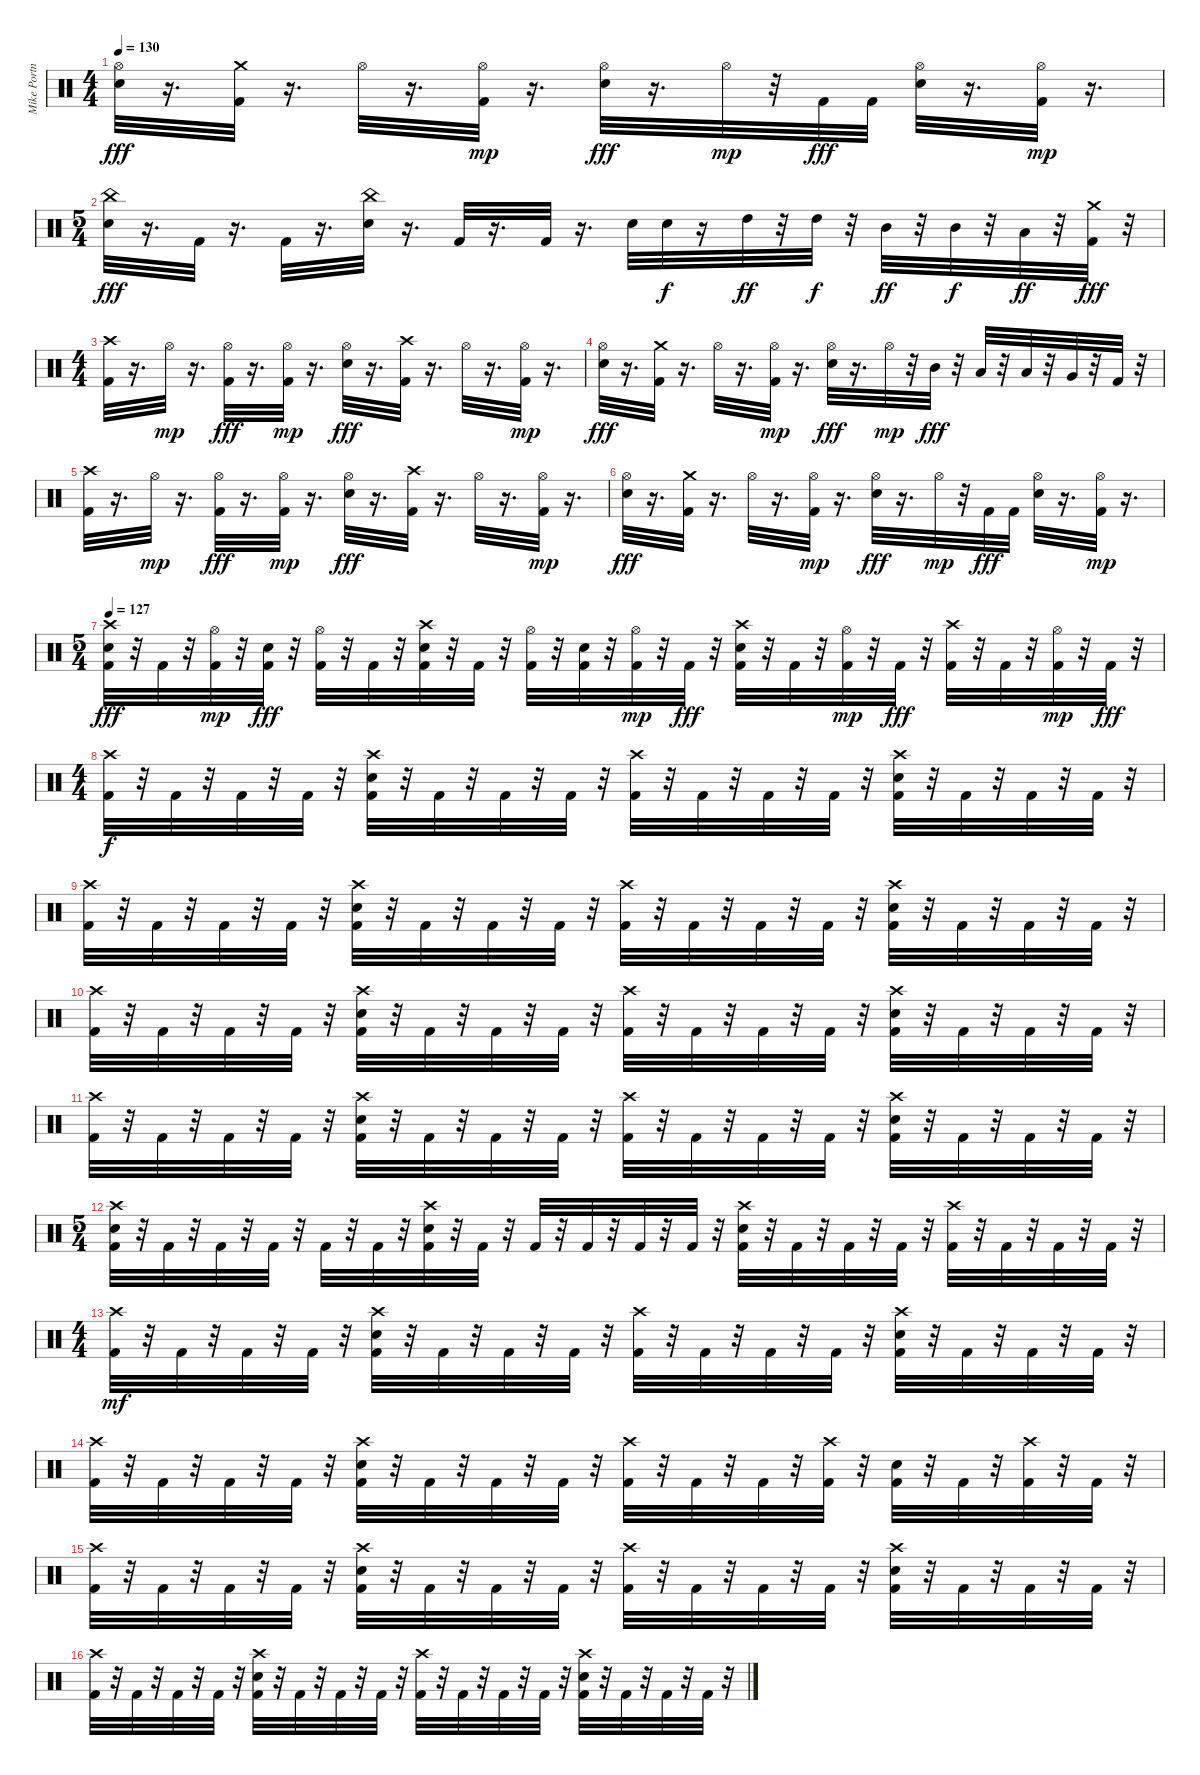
\track ("Mike Portnoy" "Mike Portn") {instrument percussion}
\staff {score}
\articulation defaults
\ts (4 4)
\tempo 130
\clef neutral
\ks c
("Snare (hit) 2" "Hi-Hat (open)").32{dy fff} r.16{d} ("Kick (hit) 2" "Crash medium (hit)").32 r.16{d} "Hi-Hat (open)".32 r.16{d} ("Kick (hit) 2" "Hi-Hat (open)").32{dy mp} r.16{d} ("Snare (hit) 2" "Hi-Hat (open)").32{dy fff} r.16{d} "Hi-Hat (open)".32{dy mp} r.32 "Kick (hit) 2".32{dy fff} "Kick (hit) 2".32 ("Snare (hit) 2" "Hi-Hat (open)").32 r.16{d} ("Kick (hit) 2" "Hi-Hat (open)").32{dy mp} r.16{d} |
\ts (5 4)
("Snare (hit) 2" "China (hit)").32{dy fff} r.16{d} "Kick (hit) 2".32 r.16{d} "Kick (hit) 2".32 r.16{d} ("Snare (hit) 2" "China (hit)").32 r.16{d} "Kick (hit) 2".32 r.16{d} "Kick (hit) 2".32 r.16{d} "Snare (hit) 2".32 "Snare (hit) 2".32{dy f} r.16 "High Tom (hit)".32{dy ff} r.32 "High Tom (hit)".32{dy f} r.32 "Mid Tom (hit)".32{dy ff} r.32 "Mid Tom (hit)".32{dy f} r.32 "Low Tom (hit)".32{dy ff} r.32 ("Kick (hit) 2" "Crash medium (hit)").32{dy fff} r.32 |
\ts (4 4)
("Crash high (hit)" "Kick (hit) 2").32 r.16{d} "Hi-Hat (open)".32{dy mp} r.16{d} ("Kick (hit) 2" "Hi-Hat (open)").32{dy fff} r.16{d} ("Kick (hit) 2" "Hi-Hat (open)").32{dy mp} r.16{d} ("Snare (hit) 2" "Hi-Hat (open)").32{dy fff} r.16{d} ("Crash high (hit)" "Kick (hit) 2").32 r.16{d} "Hi-Hat (open)".32 r.16{d} ("Kick (hit) 2" "Hi-Hat (open)").32{dy mp} r.16{d} |
("Snare (hit) 2" "Hi-Hat (open)").32{dy fff} r.16{d} ("Kick (hit) 2" "Crash medium (hit)").32 r.16{d} "Hi-Hat (open)".32 r.16{d} ("Kick (hit) 2" "Hi-Hat (open)").32{dy mp} r.16{d} ("Snare (hit) 2" "Hi-Hat (open)").32{dy fff} r.16{d} "Hi-Hat (open)".32{dy mp} r.32 "Mid Tom (hit)".32{dy fff} r.32 "Low Tom (hit)".32 r.32 "Low Tom (hit)".32 r.32 "Very Low Tom (hit)".32 r.32 "Kick (hit) 2".32 r.32 |
("Crash high (hit)" "Kick (hit) 2").32 r.16{d} "Hi-Hat (open)".32{dy mp} r.16{d} ("Kick (hit) 2" "Hi-Hat (open)").32{dy fff} r.16{d} ("Kick (hit) 2" "Hi-Hat (open)").32{dy mp} r.16{d} ("Snare (hit) 2" "Hi-Hat (open)").32{dy fff} r.16{d} ("Crash high (hit)" "Kick (hit) 2").32 r.16{d} "Hi-Hat (open)".32 r.16{d} ("Kick (hit) 2" "Hi-Hat (open)").32{dy mp} r.16{d} |
("Snare (hit) 2" "Hi-Hat (open)").32{dy fff} r.16{d} ("Kick (hit) 2" "Crash medium (hit)").32 r.16{d} "Hi-Hat (open)".32 r.16{d} ("Kick (hit) 2" "Hi-Hat (open)").32{dy mp} r.16{d} ("Snare (hit) 2" "Hi-Hat (open)").32{dy fff} r.16{d} "Hi-Hat (open)".32{dy mp} r.32 "Kick (hit) 2".32{dy fff} "Kick (hit) 2".32 ("Snare (hit) 2" "Hi-Hat (open)").32 r.16{d} ("Kick (hit) 2" "Hi-Hat (open)").32{dy mp} r.16{d} |
\ts (5 4)
\tempo 127
("Kick (hit) 2" "Snare (hit) 2" "Crash high (hit)").32{dy fff} r.32 "Kick (hit) 2".32 r.32 ("Kick (hit) 2" "Hi-Hat (open)").32{dy mp} r.32 ("Kick (hit) 2" "Snare (hit) 2").32{dy fff} r.32 ("Kick (hit) 2" "Hi-Hat (open)").32 r.32 "Kick (hit) 2".32 r.32 ("Kick (hit) 2" "Snare (hit) 2" "Crash high (hit)").32 r.32 "Kick (hit) 2".32 r.32 ("Kick (hit) 2" "Hi-Hat (open)").32 r.32 ("Kick (hit) 2" "Snare (hit) 2").32 r.32 ("Kick (hit) 2" "Hi-Hat (open)").32{dy mp} r.32 "Kick (hit) 2".32{dy fff} r.32 ("Kick (hit) 2" "Snare (hit) 2" "Crash high (hit)").32 r.32 "Kick (hit) 2".32 r.32 ("Kick (hit) 2" "Hi-Hat (open)").32{dy mp} r.32 "Kick (hit) 2".32{dy fff} r.32 ("Kick (hit) 2" "Crash high (hit)").32 r.32 "Kick (hit) 2".32 r.32 ("Kick (hit) 2" "Hi-Hat (open)").32{dy mp} r.32 "Kick (hit) 2".32{dy fff} r.32 |
\ts (4 4)
("Kick (hit) 2" "Crash high (hit)").32{dy f} r.32 "Kick (hit) 2".32 r.32 "Kick (hit) 2".32 r.32 "Kick (hit) 2".32 r.32 ("Kick (hit) 2" "Snare (hit) 2" "Crash high (hit)").32 r.32 "Kick (hit) 2".32 r.32 "Kick (hit) 2".32 r.32 "Kick (hit) 2".32 r.32 ("Kick (hit) 2" "Crash high (hit)").32 r.32 "Kick (hit) 2".32 r.32 "Kick (hit) 2".32 r.32 "Kick (hit) 2".32 r.32 ("Kick (hit) 2" "Snare (hit) 2" "Crash high (hit)").32 r.32 "Kick (hit) 2".32 r.32 "Kick (hit) 2".32 r.32 "Kick (hit) 2".32 r.32 |
("Kick (hit) 2" "Crash high (hit)").32 r.32 "Kick (hit) 2".32 r.32 "Kick (hit) 2".32 r.32 "Kick (hit) 2".32 r.32 ("Kick (hit) 2" "Snare (hit) 2" "Crash high (hit)").32 r.32 "Kick (hit) 2".32 r.32 "Kick (hit) 2".32 r.32 "Kick (hit) 2".32 r.32 ("Kick (hit) 2" "Crash high (hit)").32 r.32 "Kick (hit) 2".32 r.32 "Kick (hit) 2".32 r.32 "Kick (hit) 2".32 r.32 ("Kick (hit) 2" "Snare (hit) 2" "Crash high (hit)").32 r.32 "Kick (hit) 2".32 r.32 "Kick (hit) 2".32 r.32 "Kick (hit) 2".32 r.32 |
("Kick (hit) 2" "Crash high (hit)").32{volume 16} r.32 "Kick (hit) 2".32 r.32 "Kick (hit) 2".32 r.32 "Kick (hit) 2".32 r.32 ("Kick (hit) 2" "Snare (hit) 2" "Crash high (hit)").32{volume 15} r.32 "Kick (hit) 2".32 r.32 "Kick (hit) 2".32 r.32 "Kick (hit) 2".32 r.32 ("Kick (hit) 2" "Crash high (hit)").32{volume 15} r.32 "Kick (hit) 2".32 r.32 "Kick (hit) 2".32 r.32 "Kick (hit) 2".32 r.32 ("Kick (hit) 2" "Snare (hit) 2" "Crash high (hit)").32{volume 14} r.32 "Kick (hit) 2".32 r.32 "Kick (hit) 2".32 r.32 "Kick (hit) 2".32 r.32 |
("Kick (hit) 2" "Crash high (hit)").32{volume 14} r.32 "Kick (hit) 2".32 r.32 "Kick (hit) 2".32 r.32 "Kick (hit) 2".32 r.32 ("Kick (hit) 2" "Snare (hit) 2" "Crash high (hit)").32{volume 13} r.32 "Kick (hit) 2".32 r.32 "Kick (hit) 2".32 r.32 "Kick (hit) 2".32 r.32 ("Kick (hit) 2" "Crash high (hit)").32{volume 13} r.32 "Kick (hit) 2".32 r.32 "Kick (hit) 2".32 r.32 "Kick (hit) 2".32 r.32 ("Kick (hit) 2" "Snare (hit) 2" "Crash high (hit)").32{volume 12} r.32 "Kick (hit) 2".32 r.32 "Kick (hit) 2".32 r.32 "Kick (hit) 2".32 r.32 |
\ts (5 4)
("Kick (hit) 2" "Snare (hit) 2" "Crash high (hit)").32{volume 12} r.32 "Kick (hit) 2".32 r.32 "Kick (hit) 2".32 r.32 "Kick (hit) 2".32 r.32 "Kick (hit) 2".32{volume 11} r.32 "Kick (hit) 2".32 r.32 ("Kick (hit) 2" "Snare (hit) 2" "Crash high (hit)").32 r.32 "Kick (hit) 2".32 r.32 "Kick (hit) 2".32{volume 11} r.32 "Kick (hit) 2".32 r.32 "Kick (hit) 2".32 r.32 "Kick (hit) 2".32 r.32 ("Kick (hit) 2" "Snare (hit) 2" "Crash high (hit)").32{volume 10} r.32 "Kick (hit) 2".32 r.32 "Kick (hit) 2".32 r.32 "Kick (hit) 2".32 r.32 ("Kick (hit) 2" "Crash high (hit)").32{volume 10} r.32 "Kick (hit) 2".32 r.32 "Kick (hit) 2".32 r.32 "Kick (hit) 2".32 r.32 |
\ts (4 4)
("Kick (hit) 2" "Crash high (hit)").32{dy mf volume 9} r.32 "Kick (hit) 2".32 r.32 "Kick (hit) 2".32 r.32 "Kick (hit) 2".32 r.32 ("Kick (hit) 2" "Snare (hit) 2" "Crash high (hit)").32{volume 9} r.32 "Kick (hit) 2".32 r.32 "Kick (hit) 2".32 r.32 "Kick (hit) 2".32 r.32 ("Kick (hit) 2" "Crash high (hit)").32{volume 8} r.32 "Kick (hit) 2".32 r.32 "Kick (hit) 2".32 r.32 "Kick (hit) 2".32 r.32 ("Kick (hit) 2" "Snare (hit) 2" "Crash high (hit)").32{volume 8} r.32 "Kick (hit) 2".32 r.32 "Kick (hit) 2".32 r.32 "Kick (hit) 2".32 r.32 |
("Kick (hit) 2" "Crash high (hit)").32{volume 7} r.32 "Kick (hit) 2".32 r.32 "Kick (hit) 2".32 r.32 "Kick (hit) 2".32 r.32 ("Kick (hit) 2" "Snare (hit) 2" "Crash high (hit)").32{volume 7} r.32 "Kick (hit) 2".32 r.32 "Kick (hit) 2".32 r.32 "Kick (hit) 2".32 r.32 ("Kick (hit) 2" "Crash high (hit)").32{volume 6} r.32 "Kick (hit) 2".32 r.32 "Kick (hit) 2".32 r.32 ("Kick (hit) 2" "Crash high (hit)").32 r.32 ("Kick (hit) 2" "Snare (hit) 2").32{volume 6} r.32 "Kick (hit) 2".32 r.32 ("Kick (hit) 2" "Crash high (hit)").32 r.32 "Kick (hit) 2".32 r.32 |
("Kick (hit) 2" "Crash high (hit)").32{volume 5} r.32 "Kick (hit) 2".32 r.32 "Kick (hit) 2".32 r.32 "Kick (hit) 2".32 r.32 ("Kick (hit) 2" "Snare (hit) 2" "Crash high (hit)").32{volume 5} r.32 "Kick (hit) 2".32 r.32 "Kick (hit) 2".32 r.32 "Kick (hit) 2".32 r.32 ("Kick (hit) 2" "Crash high (hit)").32{volume 4} r.32 "Kick (hit) 2".32 r.32 "Kick (hit) 2".32 r.32 "Kick (hit) 2".32 r.32 ("Kick (hit) 2" "Snare (hit) 2" "Crash high (hit)").32{volume 4} r.32 "Kick (hit) 2".32 r.32 "Kick (hit) 2".32 r.32 "Kick (hit) 2".32 r.32 |
("Kick (hit) 2" "Crash high (hit)").32{volume 3} r.32 "Kick (hit) 2".32 r.32 "Kick (hit) 2".32 r.32 "Kick (hit) 2".32 r.32 ("Kick (hit) 2" "Snare (hit) 2" "Crash high (hit)").32{volume 3} r.32 "Kick (hit) 2".32 r.32 "Kick (hit) 2".32 r.32 "Kick (hit) 2".32 r.32 ("Kick (hit) 2" "Crash high (hit)").32{volume 2} r.32 "Kick (hit) 2".32 r.32 "Kick (hit) 2".32 r.32 "Kick (hit) 2".32 r.32 ("Kick (hit) 2" "Snare (hit) 2" "Crash high (hit)").32{volume 2} r.32 "Kick (hit) 2".32 r.32 "Kick (hit) 2".32 r.32 "Kick (hit) 2".32 r.32
